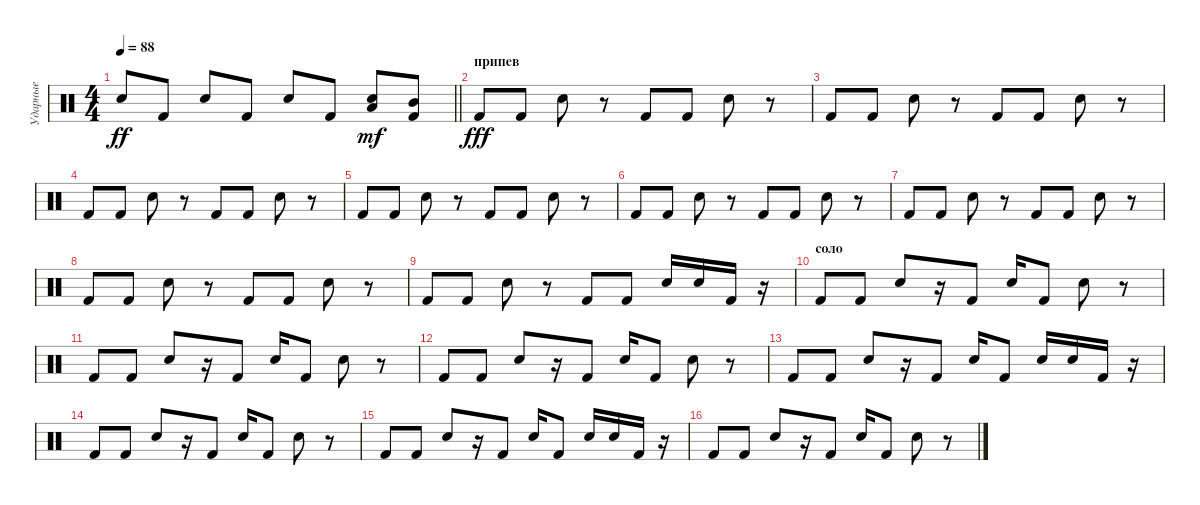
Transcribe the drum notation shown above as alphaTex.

\track ("Ударные" "Ударные") {instrument percussion}
\staff {score}
\articulation defaults
\ts (4 4)
\tempo 88
\clef neutral
\barLineRight lightlight
\ks c "Electric Snare (hit)".8{dy ff} "Kick (hit) 2".8 "Electric Snare (hit)".8 "Kick (hit) 2".8 "Electric Snare (hit)".8 "Kick (hit) 2".8
("Electric Snare (hit)" "Low Tom (hit)").8{dy mf} ("Kick (hit) 2" "Mid Tom (hit)").8 |
\section ("" "припев")
"Kick (hit) 2".8{dy fff} "Kick (hit) 2".8 "Electric Snare (hit)".8 r.8 "Kick (hit) 2".8 "Kick (hit) 2".8 "Electric Snare (hit)".8 r.8 |
"Kick (hit) 2".8 "Kick (hit) 2".8 "Electric Snare (hit)".8 r.8 "Kick (hit) 2".8 "Kick (hit) 2".8 "Electric Snare (hit)".8 r.8 |
"Kick (hit) 2".8 "Kick (hit) 2".8 "Electric Snare (hit)".8 r.8 "Kick (hit) 2".8 "Kick (hit) 2".8 "Electric Snare (hit)".8 r.8 |
"Kick (hit) 2".8 "Kick (hit) 2".8 "Electric Snare (hit)".8 r.8 "Kick (hit) 2".8 "Kick (hit) 2".8 "Electric Snare (hit)".8 r.8 |
"Kick (hit) 2".8 "Kick (hit) 2".8 "Electric Snare (hit)".8 r.8 "Kick (hit) 2".8 "Kick (hit) 2".8 "Electric Snare (hit)".8 r.8 |
"Kick (hit) 2".8 "Kick (hit) 2".8 "Electric Snare (hit)".8 r.8 "Kick (hit) 2".8 "Kick (hit) 2".8 "Electric Snare (hit)".8 r.8 |
"Kick (hit) 2".8 "Kick (hit) 2".8 "Electric Snare (hit)".8 r.8 "Kick (hit) 2".8 "Kick (hit) 2".8 "Electric Snare (hit)".8 r.8 |
"Kick (hit) 2".8 "Kick (hit) 2".8 "Electric Snare (hit)".8 r.8 "Kick (hit) 2".8 "Kick (hit) 2".8 "Electric Snare (hit)".16 "Electric Snare (hit)".16 "Kick (hit) 2".16 r.16 |
\section ("" "соло")
"Kick (hit) 2".8 "Kick (hit) 2".8 "Electric Snare (hit)".8 r.16 "Kick (hit) 2".8 "Electric Snare (hit)".16 "Kick (hit) 2".8 "Electric Snare (hit)".8 r.8 |
"Kick (hit) 2".8 "Kick (hit) 2".8 "Electric Snare (hit)".8 r.16 "Kick (hit) 2".8 "Electric Snare (hit)".16 "Kick (hit) 2".8 "Electric Snare (hit)".8 r.8 |
"Kick (hit) 2".8 "Kick (hit) 2".8 "Electric Snare (hit)".8 r.16 "Kick (hit) 2".8 "Electric Snare (hit)".16 "Kick (hit) 2".8 "Electric Snare (hit)".8 r.8 |
"Kick (hit) 2".8 "Kick (hit) 2".8 "Electric Snare (hit)".8 r.16 "Kick (hit) 2".8 "Electric Snare (hit)".16 "Kick (hit) 2".8 "Electric Snare (hit)".16 "Electric Snare (hit)".16 "Kick (hit) 2".16 r.16 |
"Kick (hit) 2".8 "Kick (hit) 2".8 "Electric Snare (hit)".8 r.16 "Kick (hit) 2".8 "Electric Snare (hit)".16 "Kick (hit) 2".8 "Electric Snare (hit)".8 r.8 |
"Kick (hit) 2".8 "Kick (hit) 2".8 "Electric Snare (hit)".8 r.16 "Kick (hit) 2".8 "Electric Snare (hit)".16 "Kick (hit) 2".8 "Electric Snare (hit)".16 "Electric Snare (hit)".16 "Kick (hit) 2".16 r.16 |
"Kick (hit) 2".8 "Kick (hit) 2".8 "Electric Snare (hit)".8 r.16 "Kick (hit) 2".8 "Electric Snare (hit)".16 "Kick (hit) 2".8 "Electric Snare (hit)".8 r.8
